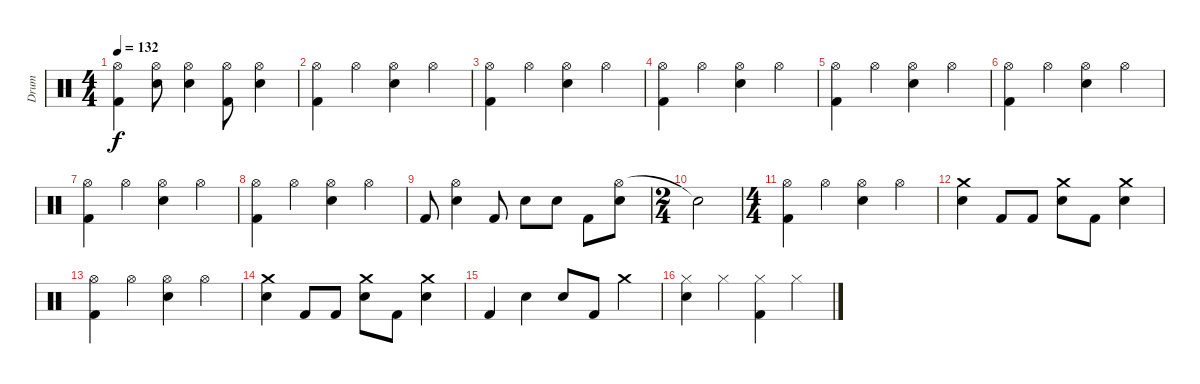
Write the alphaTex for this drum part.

\track ("Drum" "Drum") {instrument percussion}
\staff {score}
\articulation defaults
\ts (4 4)
\tempo 132
\clef neutral
\ks c
("Hi-Hat (open)" "Kick (hit) 2").4{dy f} ("Hi-Hat (open)" "Snare (hit) 2").8 ("Hi-Hat (open)" "Snare (hit) 2").4 ("Hi-Hat (open)" "Kick (hit) 2").8 ("Hi-Hat (open)" "Snare (hit) 2").4 |
("Hi-Hat (open)" "Kick (hit) 2").4 "Hi-Hat (open)".4 ("Hi-Hat (open)" "Snare (hit) 2").4 "Hi-Hat (open)".4 |
("Hi-Hat (open)" "Kick (hit) 2").4 "Hi-Hat (open)".4 ("Hi-Hat (open)" "Snare (hit) 2").4 "Hi-Hat (open)".4 |
("Hi-Hat (open)" "Kick (hit) 2").4 "Hi-Hat (open)".4 ("Hi-Hat (open)" "Snare (hit) 2").4 "Hi-Hat (open)".4 |
("Hi-Hat (open)" "Kick (hit) 2").4 "Hi-Hat (open)".4 ("Hi-Hat (open)" "Snare (hit) 2").4 "Hi-Hat (open)".4 |
("Hi-Hat (open)" "Kick (hit) 2").4 "Hi-Hat (open)".4 ("Hi-Hat (open)" "Snare (hit) 2").4 "Hi-Hat (open)".4 |
("Hi-Hat (open)" "Kick (hit) 2").4 "Hi-Hat (open)".4 ("Hi-Hat (open)" "Snare (hit) 2").4 "Hi-Hat (open)".4 |
("Hi-Hat (open)" "Kick (hit) 2").4 "Hi-Hat (open)".4 ("Hi-Hat (open)" "Snare (hit) 2").4 "Hi-Hat (open)".4 |
"Kick (hit) 2".8 ("Hi-Hat (open)" "Snare (hit) 2").4 "Kick (hit) 2".8 "Snare (hit) 2".8 "Snare (hit) 2".8 "Kick (hit) 2".8 ("Hi-Hat (open)" "Snare (hit) 2").8 |
\ts (2 4)
"Snare (hit)"{t}.2 |
\ts (4 4)
("Hi-Hat (open)" "Kick (hit) 2").4 "Hi-Hat (open)".4 ("Hi-Hat (open)" "Snare (hit) 2").4 "Hi-Hat (open)".4 |
("Snare (hit) 2" "Crash medium (hit)").4 "Kick (hit) 2".8 "Kick (hit) 2".8 ("Snare (hit) 2" "Crash medium (hit)").8 "Kick (hit) 2".8 ("Snare (hit) 2" "Crash medium (hit)").4 |
("Hi-Hat (open)" "Kick (hit) 2").4 "Hi-Hat (open)".4 ("Hi-Hat (open)" "Snare (hit) 2").4 "Hi-Hat (open)".4 |
("Snare (hit) 2" "Crash medium (hit)").4 "Kick (hit) 2".8 "Kick (hit) 2".8 ("Snare (hit) 2" "Crash medium (hit)").8 "Kick (hit) 2".8 ("Snare (hit) 2" "Crash medium (hit)").4 |
"Kick (hit) 2".4 "Snare (hit) 2".4 "Snare (hit) 2".8 "Kick (hit) 2".8 "Crash medium (hit)".4 |
("Hi-Hat (closed)" "Snare (hit) 2").4 "Hi-Hat (closed)".4 ("Hi-Hat (closed)" "Kick (hit) 2").4 "Hi-Hat (closed)".4
